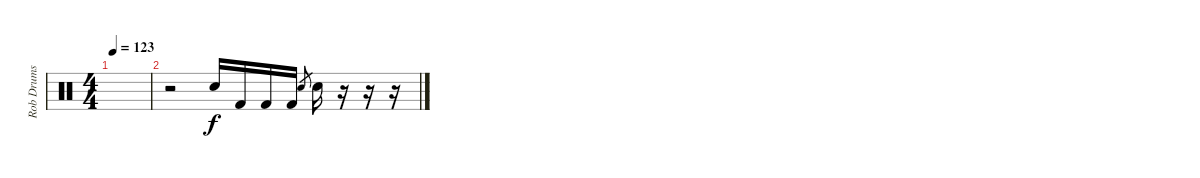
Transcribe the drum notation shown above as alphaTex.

\track ("Rob Drums" "Rob Drums") {instrument percussion}
\staff {score}
\articulation defaults
\ts (4 4)
\tempo 123
\clef neutral
\ks c
|
r.2 "Electric Snare (hit)".16 "Kick (hit) 2".16 "Kick (hit) 2".16 "Kick (hit) 2".16 "Electric Snare (hit)".8{gr} "Electric Snare (hit)".16 r.16 r.16 r.16
